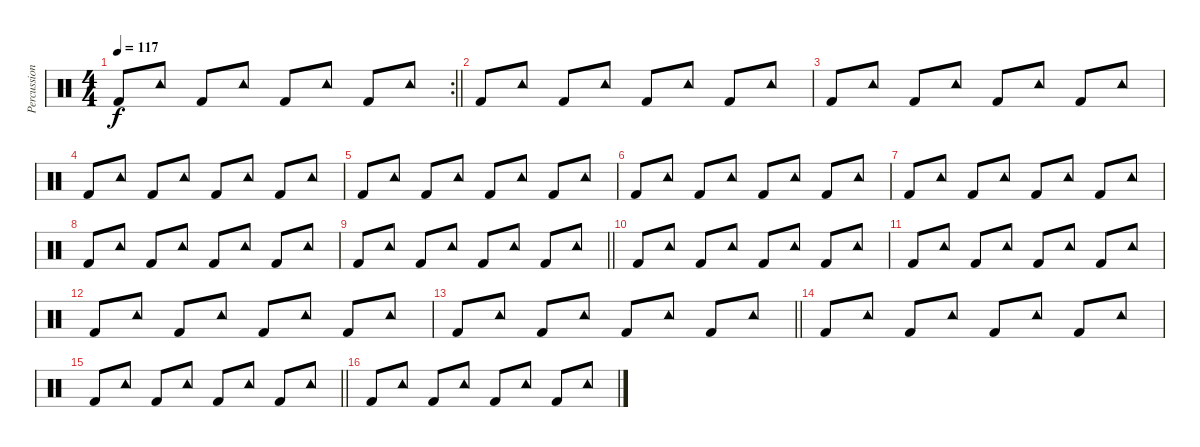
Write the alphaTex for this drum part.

\track ("Percussion" "Percussion") {instrument percussion}
\staff {score}
\articulation defaults
\rc 2
\ts (4 4)
\tempo 117
\clef neutral
\barLineRight lightlight
\ks c "Kick (hit) 2".8{dy f} "Tambourine (hit)".8 "Kick (hit) 2".8 "Tambourine (hit)".8 "Kick (hit) 2".8 "Tambourine (hit)".8 "Kick (hit) 2".8 "Tambourine (hit)".8
|
"Kick (hit) 2".8 "Tambourine (hit)".8 "Kick (hit) 2".8 "Tambourine (hit)".8 "Kick (hit) 2".8 "Tambourine (hit)".8 "Kick (hit) 2".8 "Tambourine (hit)".8 |
"Kick (hit) 2".8 "Tambourine (hit)".8 "Kick (hit) 2".8 "Tambourine (hit)".8 "Kick (hit) 2".8 "Tambourine (hit)".8 "Kick (hit) 2".8 "Tambourine (hit)".8 |
"Kick (hit) 2".8 "Tambourine (hit)".8 "Kick (hit) 2".8 "Tambourine (hit)".8 "Kick (hit) 2".8 "Tambourine (hit)".8 "Kick (hit) 2".8 "Tambourine (hit)".8 |
"Kick (hit) 2".8 "Tambourine (hit)".8 "Kick (hit) 2".8 "Tambourine (hit)".8 "Kick (hit) 2".8 "Tambourine (hit)".8 "Kick (hit) 2".8 "Tambourine (hit)".8 |
"Kick (hit) 2".8 "Tambourine (hit)".8 "Kick (hit) 2".8 "Tambourine (hit)".8 "Kick (hit) 2".8 "Tambourine (hit)".8 "Kick (hit) 2".8 "Tambourine (hit)".8 |
"Kick (hit) 2".8 "Tambourine (hit)".8 "Kick (hit) 2".8 "Tambourine (hit)".8 "Kick (hit) 2".8 "Tambourine (hit)".8 "Kick (hit) 2".8 "Tambourine (hit)".8 |
"Kick (hit) 2".8 "Tambourine (hit)".8 "Kick (hit) 2".8 "Tambourine (hit)".8 "Kick (hit) 2".8 "Tambourine (hit)".8 "Kick (hit) 2".8 "Tambourine (hit)".8 |
\barLineRight lightlight "Kick (hit) 2".8 "Tambourine (hit)".8 "Kick (hit) 2".8 "Tambourine (hit)".8 "Kick (hit) 2".8 "Tambourine (hit)".8 "Kick (hit) 2".8 "Tambourine (hit)".8
|
"Kick (hit) 2".8 "Tambourine (hit)".8 "Kick (hit) 2".8 "Tambourine (hit)".8 "Kick (hit) 2".8 "Tambourine (hit)".8 "Kick (hit) 2".8 "Tambourine (hit)".8 |
"Kick (hit) 2".8 "Tambourine (hit)".8 "Kick (hit) 2".8 "Tambourine (hit)".8 "Kick (hit) 2".8 "Tambourine (hit)".8 "Kick (hit) 2".8 "Tambourine (hit)".8 |
"Kick (hit) 2".8 "Tambourine (hit)".8 "Kick (hit) 2".8 "Tambourine (hit)".8 "Kick (hit) 2".8 "Tambourine (hit)".8 "Kick (hit) 2".8 "Tambourine (hit)".8 |
\barLineRight lightlight "Kick (hit) 2".8 "Tambourine (hit)".8 "Kick (hit) 2".8 "Tambourine (hit)".8 "Kick (hit) 2".8 "Tambourine (hit)".8 "Kick (hit) 2".8 "Tambourine (hit)".8
|
"Kick (hit) 2".8 "Tambourine (hit)".8 "Kick (hit) 2".8 "Tambourine (hit)".8 "Kick (hit) 2".8 "Tambourine (hit)".8 "Kick (hit) 2".8 "Tambourine (hit)".8 |
\barLineRight lightlight "Kick (hit) 2".8 "Tambourine (hit)".8 "Kick (hit) 2".8 "Tambourine (hit)".8 "Kick (hit) 2".8 "Tambourine (hit)".8 "Kick (hit) 2".8 "Tambourine (hit)".8
|
"Kick (hit) 2".8 "Tambourine (hit)".8 "Kick (hit) 2".8 "Tambourine (hit)".8 "Kick (hit) 2".8 "Tambourine (hit)".8 "Kick (hit) 2".8 "Tambourine (hit)".8
